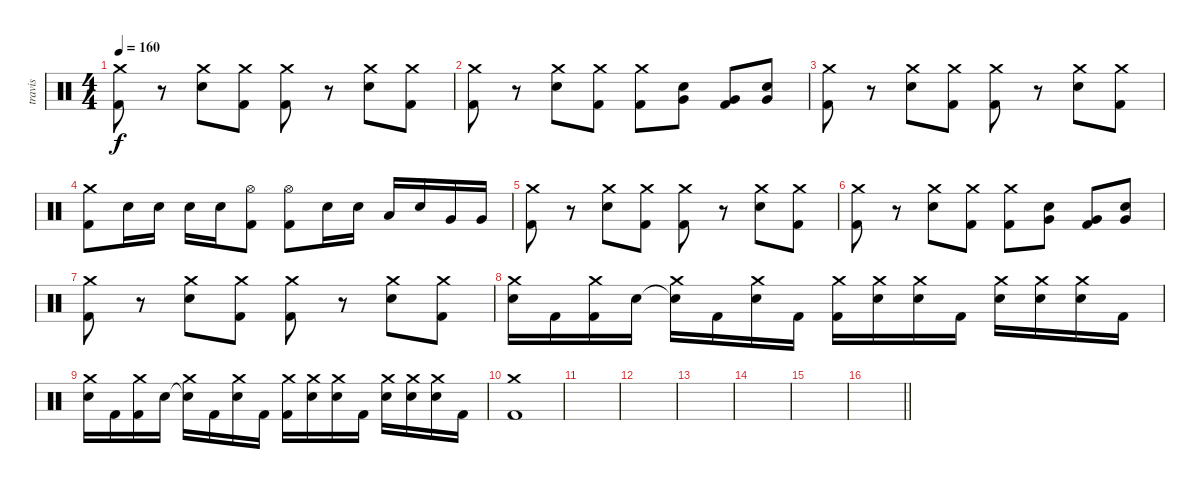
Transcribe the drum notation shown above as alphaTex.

\track ("travis" "travis") {instrument percussion}
\staff {score}
\articulation defaults
\ts (4 4)
\tempo 160
\clef neutral
\ks c
("Kick (hit) 2" "Crash medium (hit)").8{dy f} r.8 ("Snare (hit) 2" "Crash medium (hit)").8 ("Kick (hit) 2" "Crash medium (hit)").8 ("Kick (hit) 2" "Crash medium (hit)").8 r.8 ("Snare (hit) 2" "Crash medium (hit)").8 ("Kick (hit) 2" "Crash medium (hit)").8 |
("Kick (hit) 2" "Crash medium (hit)").8 r.8 ("Snare (hit) 2" "Crash medium (hit)").8 ("Kick (hit) 2" "Crash medium (hit)").8 ("Kick (hit) 2" "Crash medium (hit)").8 ("Snare (hit) 2" "Very Low Tom (hit)").8 ("Kick (hit) 2" "Very Low Tom (hit)").8 ("Snare (hit) 2" "Very Low Tom (hit)").8 |
("Kick (hit) 2" "Crash medium (hit)").8 r.8 ("Snare (hit) 2" "Crash medium (hit)").8 ("Kick (hit) 2" "Crash medium (hit)").8 ("Kick (hit) 2" "Crash medium (hit)").8 r.8 ("Snare (hit) 2" "Crash medium (hit)").8 ("Kick (hit) 2" "Crash medium (hit)").8 |
("Kick (hit) 2" "Crash medium (hit)").8 "Snare (hit) 2".16 "Snare (hit) 2".16 "Snare (hit) 2".16 "Snare (hit) 2".16 ("Hi-Hat (open)" "Kick (hit) 2").8 ("Hi-Hat (open)" "Kick (hit) 2").8 "Snare (hit) 2".16 "Snare (hit) 2".16 "Low Tom (hit)".16 "Snare (hit) 2".16 "Very Low Tom (hit)".16 "Very Low Tom (hit)".16 |
("Kick (hit) 2" "Crash medium (hit)").8 r.8 ("Snare (hit) 2" "Crash medium (hit)").8 ("Kick (hit) 2" "Crash medium (hit)").8 ("Kick (hit) 2" "Crash medium (hit)").8 r.8 ("Snare (hit) 2" "Crash medium (hit)").8 ("Kick (hit) 2" "Crash medium (hit)").8 |
("Kick (hit) 2" "Crash medium (hit)").8 r.8 ("Snare (hit) 2" "Crash medium (hit)").8 ("Kick (hit) 2" "Crash medium (hit)").8 ("Kick (hit) 2" "Crash medium (hit)").8 ("Snare (hit) 2" "Very Low Tom (hit)").8 ("Kick (hit) 2" "Very Low Tom (hit)").8 ("Snare (hit) 2" "Very Low Tom (hit)").8 |
("Kick (hit) 2" "Crash medium (hit)").8 r.8 ("Snare (hit) 2" "Crash medium (hit)").8 ("Kick (hit) 2" "Crash medium (hit)").8 ("Kick (hit) 2" "Crash medium (hit)").8 r.8 ("Snare (hit) 2" "Crash medium (hit)").8 ("Kick (hit) 2" "Crash medium (hit)").8 |
("Snare (hit) 2" "Crash medium (hit)").16 "Kick (hit) 2".16 ("Kick (hit) 2" "Crash medium (hit)").16 "Snare (hit) 2".16 ("Snare (hit)"{t} "Crash medium (hit)").16 "Kick (hit) 2".16 ("Snare (hit) 2" "Crash medium (hit)").16 "Kick (hit) 2".16 ("Kick (hit) 2" "Crash medium (hit)").16 ("Snare (hit) 2" "Crash medium (hit)").16 ("Snare (hit) 2" "Crash medium (hit)").16 "Kick (hit) 2".16 ("Snare (hit) 2" "Crash medium (hit)").16 ("Snare (hit) 2" "Crash medium (hit)").16 ("Snare (hit) 2" "Crash medium (hit)").16 "Kick (hit) 2".16 |
("Snare (hit) 2" "Crash medium (hit)").16 "Kick (hit) 2".16 ("Kick (hit) 2" "Crash medium (hit)").16 "Snare (hit) 2".16 ("Snare (hit)"{t} "Crash medium (hit)").16 "Kick (hit) 2".16 ("Snare (hit) 2" "Crash medium (hit)").16 "Kick (hit) 2".16 ("Kick (hit) 2" "Crash medium (hit)").16 ("Snare (hit) 2" "Crash medium (hit)").16 ("Snare (hit) 2" "Crash medium (hit)").16 "Kick (hit) 2".16 ("Snare (hit) 2" "Crash medium (hit)").16 ("Snare (hit) 2" "Crash medium (hit)").16 ("Snare (hit) 2" "Crash medium (hit)").16 "Kick (hit) 2".16 |
("Crash medium (hit)" "Kick (hit) 2").1 |
|
|
|
|
|
\barLineRight lightlight
